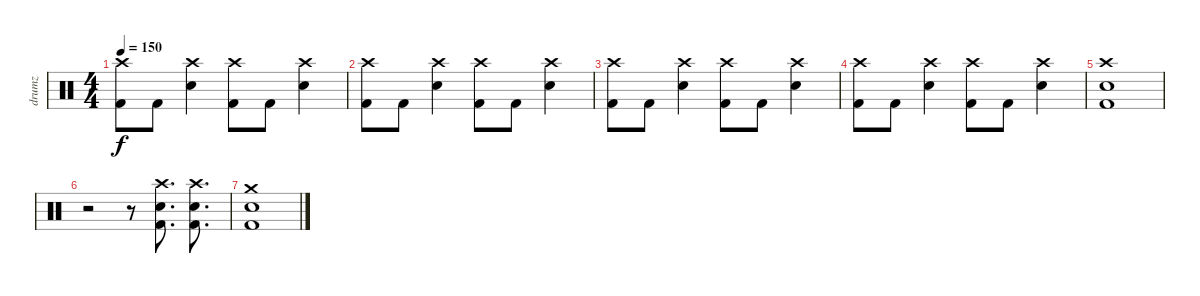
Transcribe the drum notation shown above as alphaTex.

\track ("drumz" "drumz") {instrument percussion}
\staff {score}
\articulation defaults
\ts (4 4)
\tempo 150
\clef neutral
\ks c
("Crash high (hit)" "Kick (hit) 2").8{dy f} "Kick (hit) 2".8 ("Crash high (hit)" "Electric Snare (hit)").4 ("Crash high (hit)" "Kick (hit) 2").8 "Kick (hit) 2".8 ("Crash high (hit)" "Electric Snare (hit)").4 |
("Crash high (hit)" "Kick (hit) 2").8 "Kick (hit) 2".8 ("Crash high (hit)" "Electric Snare (hit)").4 ("Crash high (hit)" "Kick (hit) 2").8 "Kick (hit) 2".8 ("Crash high (hit)" "Electric Snare (hit)").4 |
("Crash high (hit)" "Kick (hit) 2").8 "Kick (hit) 2".8 ("Crash high (hit)" "Electric Snare (hit)").4 ("Crash high (hit)" "Kick (hit) 2").8 "Kick (hit) 2".8 ("Crash high (hit)" "Electric Snare (hit)").4 |
("Crash high (hit)" "Kick (hit) 2").8 "Kick (hit) 2".8 ("Crash high (hit)" "Electric Snare (hit)").4 ("Crash high (hit)" "Kick (hit) 2").8 "Kick (hit) 2".8 ("Crash high (hit)" "Electric Snare (hit)").4 |
("Crash high (hit)" "Electric Snare (hit)" "Kick (hit) 2").1 |
r.2 r.8 ("Crash high (hit)" "Electric Snare (hit)" "Kick (hit) 2").8{d} ("Crash high (hit)" "Electric Snare (hit)" "Kick (hit) 2").8{d} |
("Crash medium (hit)" "Electric Snare (hit)" "Kick (hit) 2").1
